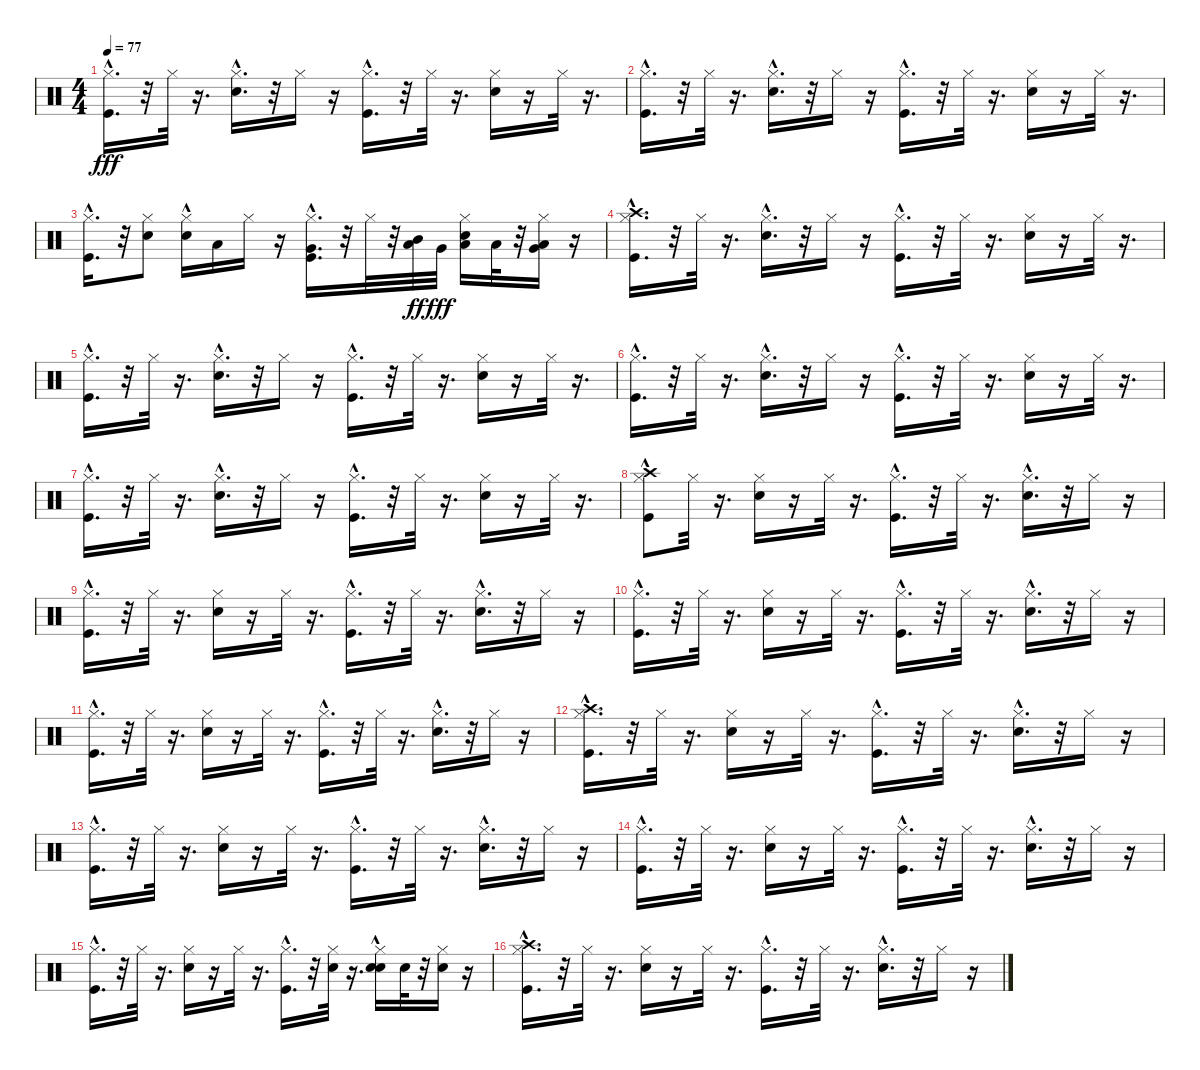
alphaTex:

\track "" {instrument percussion}
\staff {score}
\articulation defaults
\ts (4 4)
\tempo 77
\clef neutral
\ks c
("Kick (hit)"{hac} "Hi-Hat (closed)").16{d dy fff} r.32 "Hi-Hat (closed)".32 r.16{d} ("Snare (hit) 2"{hac} "Hi-Hat (closed)").16{d} r.32 "Hi-Hat (closed)".16 r.16 ("Kick (hit)"{hac} "Hi-Hat (closed)").16{d} r.32 "Hi-Hat (closed)".32 r.16{d} ("Snare (hit) 2" "Hi-Hat (closed)").16 r.16 "Hi-Hat (closed)".32 r.16{d} |
("Kick (hit)"{hac} "Hi-Hat (closed)").16{d} r.32 "Hi-Hat (closed)".32 r.16{d} ("Snare (hit) 2"{hac} "Hi-Hat (closed)").16{d} r.32 "Hi-Hat (closed)".16 r.16 ("Kick (hit)"{hac} "Hi-Hat (closed)").16{d} r.32 "Hi-Hat (closed)".32 r.16{d} ("Snare (hit) 2" "Hi-Hat (closed)").16 r.16 "Hi-Hat (closed)".32 r.16{d} |
("Kick (hit)"{hac} "Hi-Hat (closed)").16{d} r.32 ("Hi-Hat (closed)" "Electric Snare (hit)").8 ("Snare (hit) 2"{hac} "Hi-Hat (closed)").16 "Low Floor Tom (hit)".16 "Hi-Hat (closed)".16 r.16 ("Very Low Tom (hit)" "Kick (hit)"{hac} "Hi-Hat (closed)").16{d} r.32 "Hi-Hat (closed)".32 r.32 ("Low Tom (hit)" "Mid Tom (hit)").32{dy ff} "Very Low Tom (hit)".32{dy fff} ("Low Floor Tom (hit)" "Snare (hit) 2" "Hi-Hat (closed)").16 "Low Floor Tom (hit)".32 r.32 ("Hi-Hat (closed)" "Low Floor Tom (hit)" "Very Low Tom (hit)").16 r.16 |
("Kick (hit)"{hac} "Hi-Hat (closed)" "Crash high (hit)").16{d} r.32 "Hi-Hat (closed)".32 r.16{d} ("Snare (hit) 2"{hac} "Hi-Hat (closed)").16{d} r.32 "Hi-Hat (closed)".16 r.16 ("Kick (hit)"{hac} "Hi-Hat (closed)").16{d} r.32 "Hi-Hat (closed)".32 r.16{d} ("Snare (hit) 2" "Hi-Hat (closed)").16 r.16 "Hi-Hat (closed)".32 r.16{d} |
("Kick (hit)"{hac} "Hi-Hat (closed)").16{d} r.32 "Hi-Hat (closed)".32 r.16{d} ("Snare (hit) 2"{hac} "Hi-Hat (closed)").16{d} r.32 "Hi-Hat (closed)".16 r.16 ("Kick (hit)"{hac} "Hi-Hat (closed)").16{d} r.32 "Hi-Hat (closed)".32 r.16{d} ("Snare (hit) 2" "Hi-Hat (closed)").16 r.16 "Hi-Hat (closed)".32 r.16{d} |
("Kick (hit)"{hac} "Hi-Hat (closed)").16{d} r.32 "Hi-Hat (closed)".32 r.16{d} ("Snare (hit) 2"{hac} "Hi-Hat (closed)").16{d} r.32 "Hi-Hat (closed)".16 r.16 ("Kick (hit)"{hac} "Hi-Hat (closed)").16{d} r.32 "Hi-Hat (closed)".32 r.16{d} ("Snare (hit) 2" "Hi-Hat (closed)").16 r.16 "Hi-Hat (closed)".32 r.16{d} |
("Kick (hit)"{hac} "Hi-Hat (closed)").16{d} r.32 "Hi-Hat (closed)".32 r.16{d} ("Snare (hit) 2"{hac} "Hi-Hat (closed)").16{d} r.32 "Hi-Hat (closed)".16 r.16 ("Kick (hit)"{hac} "Hi-Hat (closed)").16{d} r.32 "Hi-Hat (closed)".32 r.16{d} ("Snare (hit) 2" "Hi-Hat (closed)").16 r.16 "Hi-Hat (closed)".32 r.16{d} |
("Crash high (hit)" "Kick (hit)"{hac} "Hi-Hat (closed)").8 "Hi-Hat (closed)".32 r.16{d} ("Snare (hit) 2" "Hi-Hat (closed)").16 r.16 "Hi-Hat (closed)".32 r.16{d} ("Kick (hit)"{hac} "Hi-Hat (closed)").16{d} r.32 "Hi-Hat (closed)".32 r.16{d} ("Snare (hit) 2"{hac} "Hi-Hat (closed)").16{d} r.32 "Hi-Hat (closed)".16 r.16 |
("Kick (hit)"{hac} "Hi-Hat (closed)").16{d} r.32 "Hi-Hat (closed)".32 r.16{d} ("Snare (hit) 2" "Hi-Hat (closed)").16 r.16 "Hi-Hat (closed)".32 r.16{d} ("Kick (hit)"{hac} "Hi-Hat (closed)").16{d} r.32 "Hi-Hat (closed)".32 r.16{d} ("Snare (hit) 2"{hac} "Hi-Hat (closed)").16{d} r.32 "Hi-Hat (closed)".16 r.16 |
("Kick (hit)"{hac} "Hi-Hat (closed)").16{d} r.32 "Hi-Hat (closed)".32 r.16{d} ("Snare (hit) 2" "Hi-Hat (closed)").16 r.16 "Hi-Hat (closed)".32 r.16{d} ("Kick (hit)"{hac} "Hi-Hat (closed)").16{d} r.32 "Hi-Hat (closed)".32 r.16{d} ("Snare (hit) 2"{hac} "Hi-Hat (closed)").16{d} r.32 "Hi-Hat (closed)".16 r.16 |
("Kick (hit)"{hac} "Hi-Hat (closed)").16{d} r.32 "Hi-Hat (closed)".32 r.16{d} ("Snare (hit) 2" "Hi-Hat (closed)").16 r.16 "Hi-Hat (closed)".32 r.16{d} ("Kick (hit)"{hac} "Hi-Hat (closed)").16{d} r.32 "Hi-Hat (closed)".32 r.16{d} ("Snare (hit) 2"{hac} "Hi-Hat (closed)").16{d} r.32 "Hi-Hat (closed)".16 r.16 |
("Crash high (hit)"{hac} "Kick (hit)"{hac} "Hi-Hat (closed)").16{d} r.32 "Hi-Hat (closed)".32 r.16{d} ("Snare (hit) 2" "Hi-Hat (closed)").16 r.16 "Hi-Hat (closed)".32 r.16{d} ("Kick (hit)"{hac} "Hi-Hat (closed)").16{d} r.32 "Hi-Hat (closed)".32 r.16{d} ("Snare (hit) 2"{hac} "Hi-Hat (closed)").16{d} r.32 "Hi-Hat (closed)".16 r.16 |
("Kick (hit)"{hac} "Hi-Hat (closed)").16{d} r.32 "Hi-Hat (closed)".32 r.16{d} ("Snare (hit) 2" "Hi-Hat (closed)").16 r.16 "Hi-Hat (closed)".32 r.16{d} ("Kick (hit)"{hac} "Hi-Hat (closed)").16{d} r.32 "Hi-Hat (closed)".32 r.16{d} ("Snare (hit) 2"{hac} "Hi-Hat (closed)").16{d} r.32 "Hi-Hat (closed)".16 r.16 |
("Kick (hit)"{hac} "Hi-Hat (closed)").16{d} r.32 "Hi-Hat (closed)".32 r.16{d} ("Snare (hit) 2" "Hi-Hat (closed)").16 r.16 "Hi-Hat (closed)".32 r.16{d} ("Kick (hit)"{hac} "Hi-Hat (closed)").16{d} r.32 "Hi-Hat (closed)".32 r.16{d} ("Snare (hit) 2"{hac} "Hi-Hat (closed)").16{d} r.32 "Hi-Hat (closed)".16 r.16 |
("Kick (hit)"{hac} "Hi-Hat (closed)").16{d} r.32 "Hi-Hat (closed)".32 r.16{d} ("Snare (hit) 2" "Hi-Hat (closed)").16 r.16 "Hi-Hat (closed)".32 r.16{d} ("Kick (hit)"{hac} "Hi-Hat (closed)").16{d} r.32 ("Hi-Hat (closed)" "Electric Snare (hit)").32 r.16{d} ("Snare (hit) 2"{hac} "Hi-Hat (closed)" "Electric Snare (hit)").16 "Electric Snare (hit)".32 r.32 ("Snare (hit) 2" "Hi-Hat (closed)").16 r.16 |
("Crash high (hit)" "Kick (hit)"{hac} "Hi-Hat (closed)").16{d} r.32 "Hi-Hat (closed)".32 r.16{d} ("Snare (hit) 2" "Hi-Hat (closed)").16 r.16 "Hi-Hat (closed)".32 r.16{d} ("Kick (hit)"{hac} "Hi-Hat (closed)").16{d} r.32 "Hi-Hat (closed)".32 r.16{d} ("Snare (hit) 2"{hac} "Hi-Hat (closed)").16{d} r.32 "Hi-Hat (closed)".16 r.16
